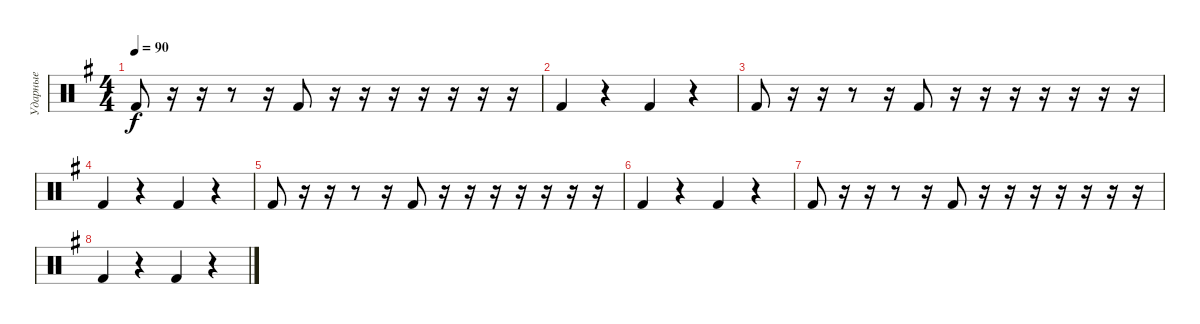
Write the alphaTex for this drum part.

\track ("Ударные" "Ударные") {instrument percussion}
\staff {score}
\articulation defaults
\ts (4 4)
\tempo 90
\clef neutral
\ks g "Kick (hit) 2".8{dy f}
r.16 r.16 r.8 r.16 "Kick (hit) 2".8 r.16 r.16 r.16 r.16 r.16 r.16 r.16 |
"Kick (hit) 2".4 r.4 "Kick (hit) 2".4 r.4 |
"Kick (hit) 2".8 r.16 r.16 r.8 r.16 "Kick (hit) 2".8 r.16 r.16 r.16 r.16 r.16 r.16 r.16 |
"Kick (hit) 2".4 r.4 "Kick (hit) 2".4 r.4 |
"Kick (hit) 2".8 r.16 r.16 r.8 r.16 "Kick (hit) 2".8 r.16 r.16 r.16 r.16 r.16 r.16 r.16 |
"Kick (hit) 2".4 r.4 "Kick (hit) 2".4 r.4 |
"Kick (hit) 2".8{volume 0} r.16 r.16 r.8 r.16 "Kick (hit) 2".8 r.16 r.16 r.16 r.16 r.16 r.16 r.16 |
"Kick (hit) 2".4 r.4 "Kick (hit) 2".4 r.4
